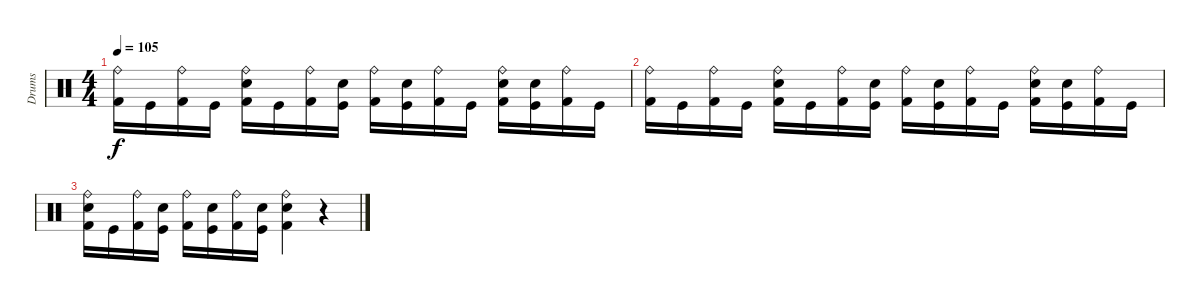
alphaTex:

\track ("Drums" "Drums") {instrument percussion}
\staff {score}
\articulation defaults
\ts (4 4)
\tempo 105
\clef neutral
\ks c
("Ride (bell)" "Kick (hit) 2").16{dy f} "Kick (hit)".16 ("Ride (bell)" "Kick (hit) 2").16 "Kick (hit)".16 ("Ride (bell)" "Snare (hit) 2" "Kick (hit) 2").16 "Kick (hit)".16 ("Ride (bell)" "Kick (hit) 2").16 ("Snare (hit) 2" "Kick (hit)").16 ("Ride (bell)" "Kick (hit) 2").16 ("Snare (hit) 2" "Kick (hit)").16 ("Ride (bell)" "Kick (hit) 2").16 "Kick (hit)".16 ("Ride (bell)" "Snare (hit) 2" "Kick (hit) 2").16 ("Snare (hit) 2" "Kick (hit)").16 ("Ride (bell)" "Kick (hit) 2").16 "Kick (hit)".16 |
("Ride (bell)" "Kick (hit) 2").16 "Kick (hit)".16 ("Ride (bell)" "Kick (hit) 2").16 "Kick (hit)".16 ("Ride (bell)" "Snare (hit) 2" "Kick (hit) 2").16 "Kick (hit)".16 ("Ride (bell)" "Kick (hit) 2").16 ("Snare (hit) 2" "Kick (hit)").16 ("Ride (bell)" "Kick (hit) 2").16 ("Snare (hit) 2" "Kick (hit)").16 ("Ride (bell)" "Kick (hit) 2").16 "Kick (hit)".16 ("Ride (bell)" "Snare (hit) 2" "Kick (hit) 2").16 ("Snare (hit) 2" "Kick (hit)").16 ("Ride (bell)" "Kick (hit) 2").16 "Kick (hit)".16 |
("Ride (bell)" "Snare (hit) 2" "Kick (hit) 2").16 "Kick (hit)".16 ("Ride (bell)" "Kick (hit) 2").16 ("Snare (hit) 2" "Kick (hit)").16 ("Ride (bell)" "Kick (hit) 2").16 ("Snare (hit) 2" "Kick (hit)").16 ("Ride (bell)" "Kick (hit) 2").16 ("Snare (hit) 2" "Kick (hit)").16 ("Ride (bell)" "Snare (hit) 2" "Kick (hit) 2").4 r.4
